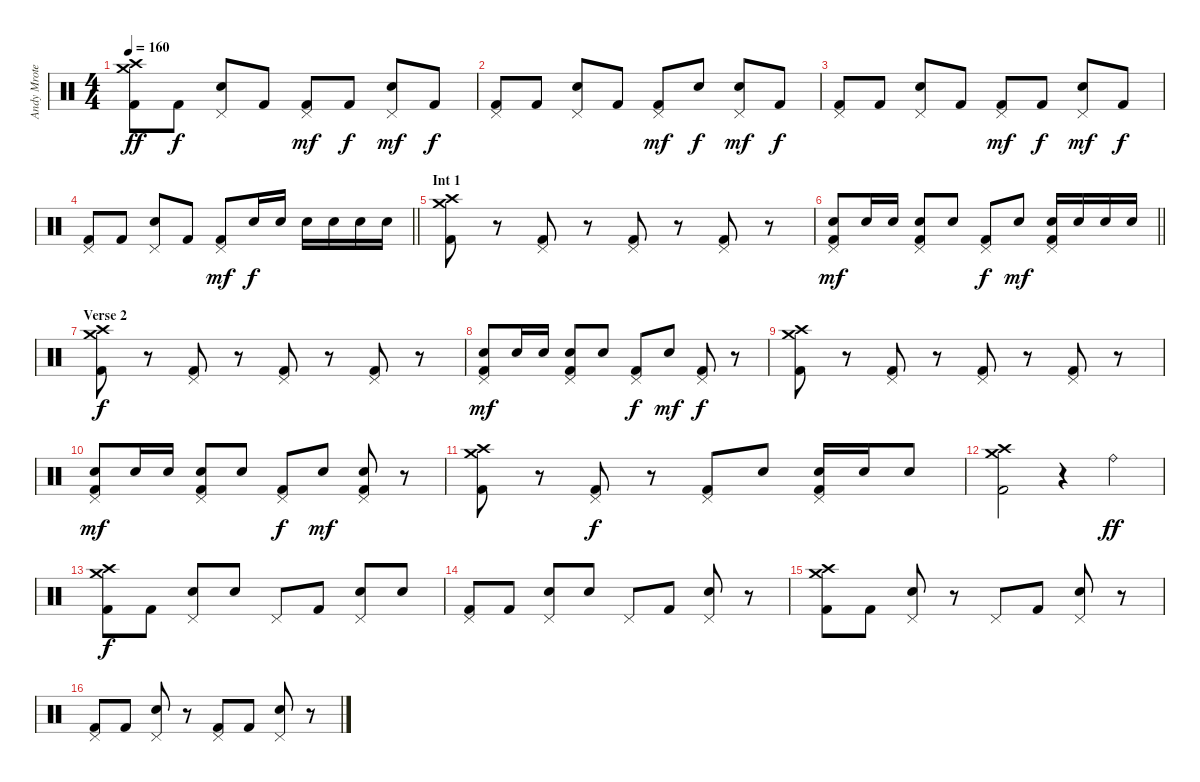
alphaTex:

\track ("Andy Mrotek (Drums)" "Andy Mrote") {instrument percussion}
\staff {score}
\articulation defaults
\ts (4 4)
\tempo 160
\clef neutral
\ks c
("Crash high (hit)" "Crash medium (hit)" "Kick (hit) 2").8{dy ff} "Kick (hit) 2".8{dy f} ("Pedal Hi-Hat (hit)" "Electric Snare (hit)").8 "Kick (hit) 2".8 ("Pedal Hi-Hat (hit)" "Kick (hit) 2").8{dy mf} "Kick (hit) 2".8{dy f} ("Pedal Hi-Hat (hit)" "Electric Snare (hit)").8{dy mf} "Kick (hit) 2".8{dy f} |
("Pedal Hi-Hat (hit)" "Kick (hit) 2").8 "Kick (hit) 2".8 ("Pedal Hi-Hat (hit)" "Electric Snare (hit)").8 "Kick (hit) 2".8 ("Pedal Hi-Hat (hit)" "Kick (hit) 2").8{dy mf} "Electric Snare (hit)".8{dy f} ("Pedal Hi-Hat (hit)" "Electric Snare (hit)").8{dy mf} "Kick (hit) 2".8{dy f} |
("Pedal Hi-Hat (hit)" "Kick (hit) 2").8 "Kick (hit) 2".8 ("Pedal Hi-Hat (hit)" "Electric Snare (hit)").8 "Kick (hit) 2".8 ("Pedal Hi-Hat (hit)" "Kick (hit) 2").8{dy mf} "Kick (hit) 2".8{dy f} ("Pedal Hi-Hat (hit)" "Electric Snare (hit)").8{dy mf} "Kick (hit) 2".8{dy f} |
\barLineRight lightlight
("Pedal Hi-Hat (hit)" "Kick (hit) 2").8 "Kick (hit) 2".8 ("Pedal Hi-Hat (hit)" "Electric Snare (hit)").8 "Kick (hit) 2".8 ("Pedal Hi-Hat (hit)" "Kick (hit) 2").8{dy mf} "Electric Snare (hit)".16{dy f} "Electric Snare (hit)".16 "Electric Snare (hit)".16 "Electric Snare (hit)".16 "Electric Snare (hit)".16 "Electric Snare (hit)".16 |
\section ("" "Int 1")
("Crash high (hit)" "Crash medium (hit)" "Kick (hit) 2").8 r.8 ("Pedal Hi-Hat (hit)" "Kick (hit) 2").8 r.8 ("Pedal Hi-Hat (hit)" "Kick (hit) 2").8 r.8 ("Pedal Hi-Hat (hit)" "Kick (hit) 2").8 r.8 |
\barLineRight lightlight
("Pedal Hi-Hat (hit)" "Electric Snare (hit)" "Kick (hit) 2").8{dy mf} "Electric Snare (hit)".16 "Electric Snare (hit)".16 ("Pedal Hi-Hat (hit)" "Electric Snare (hit)" "Kick (hit) 2").8 "Electric Snare (hit)".8 ("Pedal Hi-Hat (hit)" "Kick (hit) 2").8{dy f} "Electric Snare (hit)".8{dy mf} ("Pedal Hi-Hat (hit)" "Electric Snare (hit)" "Kick (hit) 2").16 "Electric Snare (hit)".16 "Electric Snare (hit)".16 "Electric Snare (hit)".16 |
\section ("" "Verse 2")
("Crash high (hit)" "Crash medium (hit)" "Kick (hit) 2").8{dy f} r.8 ("Pedal Hi-Hat (hit)" "Kick (hit) 2").8 r.8 ("Pedal Hi-Hat (hit)" "Kick (hit) 2").8 r.8 ("Pedal Hi-Hat (hit)" "Kick (hit) 2").8 r.8 |
("Pedal Hi-Hat (hit)" "Electric Snare (hit)" "Kick (hit) 2").8{dy mf} "Electric Snare (hit)".16 "Electric Snare (hit)".16 ("Pedal Hi-Hat (hit)" "Electric Snare (hit)" "Kick (hit) 2").8 "Electric Snare (hit)".8 ("Pedal Hi-Hat (hit)" "Kick (hit) 2").8{dy f} "Electric Snare (hit)".8{dy mf} ("Pedal Hi-Hat (hit)" "Kick (hit) 2").8{dy f} r.8 |
("Crash high (hit)" "Crash medium (hit)" "Kick (hit) 2").8 r.8 ("Pedal Hi-Hat (hit)" "Kick (hit) 2").8 r.8 ("Pedal Hi-Hat (hit)" "Kick (hit) 2").8 r.8 ("Pedal Hi-Hat (hit)" "Kick (hit) 2").8 r.8 |
("Pedal Hi-Hat (hit)" "Electric Snare (hit)" "Kick (hit) 2").8{dy mf} "Electric Snare (hit)".16 "Electric Snare (hit)".16 ("Pedal Hi-Hat (hit)" "Electric Snare (hit)" "Kick (hit) 2").8 "Electric Snare (hit)".8 ("Pedal Hi-Hat (hit)" "Kick (hit) 2").8{dy f} "Electric Snare (hit)".8{dy mf} ("Pedal Hi-Hat (hit)" "Electric Snare (hit)" "Kick (hit) 2").8 r.8 |
("Crash high (hit)" "Crash medium (hit)" "Kick (hit) 2").8 r.8 ("Pedal Hi-Hat (hit)" "Kick (hit) 2").8{dy f} r.8 ("Pedal Hi-Hat (hit)" "Kick (hit) 2").8 "Electric Snare (hit)".8 ("Pedal Hi-Hat (hit)" "Electric Snare (hit)" "Kick (hit) 2").16 "Electric Snare (hit)".16 "Electric Snare (hit)".8 |
("Crash high (hit)" "Crash medium (hit)" "Kick (hit) 2").2 r.4 "Ride (bell)".4{dy ff} |
("Crash high (hit)" "Crash medium (hit)" "Kick (hit) 2").8{dy f} "Kick (hit) 2".8 ("Pedal Hi-Hat (hit)" "Electric Snare (hit)").8 "Electric Snare (hit)".8 "Pedal Hi-Hat (hit)".8 "Kick (hit) 2".8 ("Pedal Hi-Hat (hit)" "Electric Snare (hit)").8 "Electric Snare (hit)".8 |
("Pedal Hi-Hat (hit)" "Kick (hit) 2").8 "Kick (hit) 2".8 ("Pedal Hi-Hat (hit)" "Electric Snare (hit)").8 "Electric Snare (hit)".8 "Pedal Hi-Hat (hit)".8 "Kick (hit) 2".8 ("Pedal Hi-Hat (hit)" "Electric Snare (hit)").8 r.8 |
("Crash high (hit)" "Crash medium (hit)" "Kick (hit) 2").8 "Kick (hit) 2".8 ("Pedal Hi-Hat (hit)" "Electric Snare (hit)").8 r.8 "Pedal Hi-Hat (hit)".8 "Kick (hit) 2".8 ("Pedal Hi-Hat (hit)" "Electric Snare (hit)").8 r.8 |
("Pedal Hi-Hat (hit)" "Kick (hit) 2").8 "Kick (hit) 2".8 ("Pedal Hi-Hat (hit)" "Electric Snare (hit)").8 r.8 ("Pedal Hi-Hat (hit)" "Kick (hit) 2").8 "Kick (hit) 2".8 ("Pedal Hi-Hat (hit)" "Electric Snare (hit)").8 r.8
